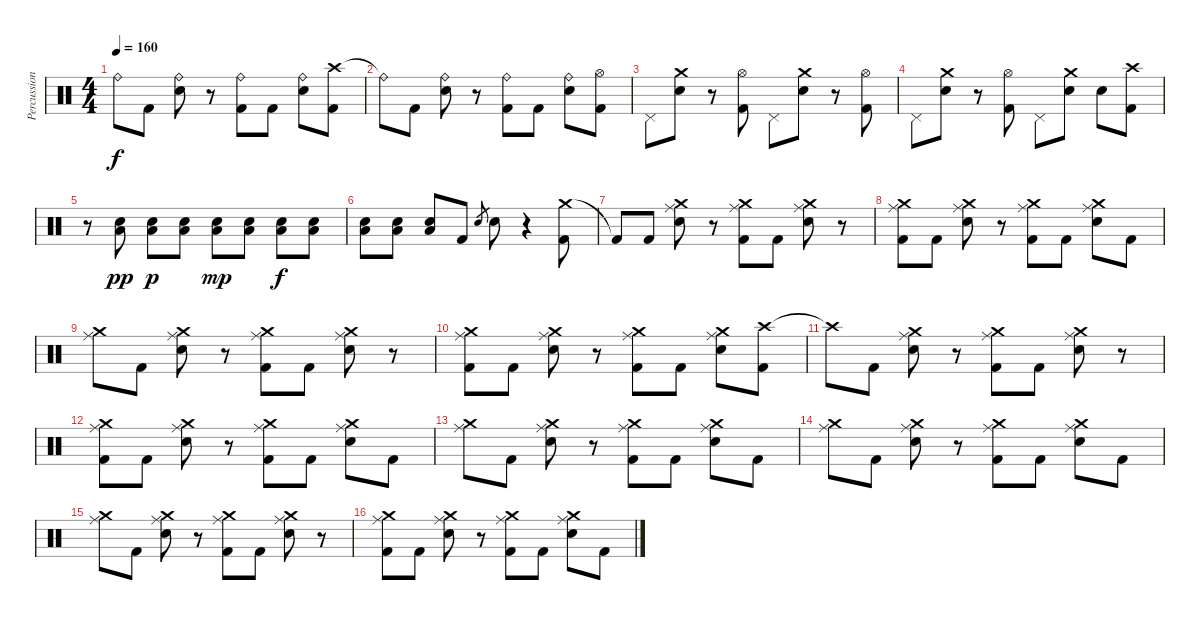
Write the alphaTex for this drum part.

\track ("Percussion" "Percussion") {instrument percussion}
\staff {score}
\articulation defaults
\ts (4 4)
\tempo 160
\clef neutral
\ks c "Ride (bell)"{t}.8{dy f} "Kick (hit) 2".8
("Ride (bell)" "Electric Snare (hit)").8 r.8 ("Ride (bell)" "Kick (hit) 2").8 "Kick (hit) 2".8 ("Ride (bell)" "Electric Snare (hit)").8 ("Crash high (hit)" "Kick (hit) 2").8 |
"Ride (bell)"{t}.8 "Kick (hit) 2".8 ("Ride (bell)" "Electric Snare (hit)").8 r.8 ("Ride (bell)" "Kick (hit) 2").8 "Kick (hit) 2".8 ("Ride (bell)" "Electric Snare (hit)").8 ("Hi-Hat (open)" "Kick (hit) 2").8 |
"Pedal Hi-Hat (hit)".8 ("Crash medium (hit)" "Electric Snare (hit)").8 r.8 ("Hi-Hat (open)" "Kick (hit) 2").8 "Pedal Hi-Hat (hit)".8 ("Crash medium (hit)" "Electric Snare (hit)").8 r.8 ("Hi-Hat (open)" "Kick (hit) 2").8 |
"Pedal Hi-Hat (hit)".8 ("Crash medium (hit)" "Electric Snare (hit)").8 r.8 ("Hi-Hat (open)" "Kick (hit) 2").8 "Pedal Hi-Hat (hit)".8 ("Crash medium (hit)" "Electric Snare (hit)").8 "Electric Snare (hit)".8 ("Crash high (hit)" "Kick (hit) 2").8 |
r.8 ("Low Tom (hit)" "Electric Snare (hit)").8{dy pp} ("Low Tom (hit)" "Electric Snare (hit)").8{dy p} ("Low Tom (hit)" "Electric Snare (hit)").8 ("Low Tom (hit)" "Electric Snare (hit)").8{dy mp} ("Low Tom (hit)" "Electric Snare (hit)").8 ("Low Tom (hit)" "Electric Snare (hit)").8{dy f} ("Low Tom (hit)" "Electric Snare (hit)").8 |
("Low Tom (hit)" "Electric Snare (hit)").8 ("Low Tom (hit)" "Electric Snare (hit)").8 ("Low Tom (hit)" "Electric Snare (hit)").8 "Kick (hit) 2".8 "Electric Snare (hit)".8{gr} "Electric Snare (hit)".8 r.4 ("Crash medium (hit)" "Kick (hit) 2").8 |
"Kick (hit) 2"{t}.8 "Kick (hit) 2".8 ("Ride (middle)" "Crash medium (hit)" "Electric Snare (hit)").8 r.8 ("Ride (middle)" "Crash medium (hit)" "Kick (hit) 2").8 "Kick (hit) 2".8 ("Ride (middle)" "Crash medium (hit)" "Electric Snare (hit)").8 r.8 |
("Ride (middle)" "Crash medium (hit)" "Kick (hit) 2").8 "Kick (hit) 2".8 ("Ride (middle)" "Crash medium (hit)" "Electric Snare (hit)").8 r.8 ("Ride (middle)" "Crash medium (hit)" "Kick (hit) 2").8 "Kick (hit) 2".8 ("Ride (middle)" "Crash medium (hit)" "Electric Snare (hit)").8 "Kick (hit) 2".8 |
("Ride (middle)" "Crash medium (hit)").8 "Kick (hit) 2".8 ("Ride (middle)" "Crash medium (hit)" "Electric Snare (hit)").8 r.8 ("Ride (middle)" "Crash medium (hit)" "Kick (hit) 2").8 "Kick (hit) 2".8 ("Ride (middle)" "Crash medium (hit)" "Electric Snare (hit)").8 r.8 |
("Ride (middle)" "Crash medium (hit)" "Kick (hit) 2").8 "Kick (hit) 2".8 ("Ride (middle)" "Crash medium (hit)" "Electric Snare (hit)").8 r.8 ("Ride (middle)" "Crash medium (hit)" "Kick (hit) 2").8 "Kick (hit) 2".8 ("Ride (middle)" "Crash medium (hit)" "Electric Snare (hit)").8 ("Crash high (hit)" "Kick (hit) 2").8 |
"Crash high (hit)"{t}.8 "Kick (hit) 2".8 ("Ride (middle)" "Crash medium (hit)" "Electric Snare (hit)").8 r.8 ("Ride (middle)" "Crash medium (hit)" "Kick (hit) 2").8 "Kick (hit) 2".8 ("Ride (middle)" "Crash medium (hit)" "Electric Snare (hit)").8 r.8 |
("Ride (middle)" "Crash medium (hit)" "Kick (hit) 2").8 "Kick (hit) 2".8 ("Ride (middle)" "Crash medium (hit)" "Electric Snare (hit)").8 r.8 ("Ride (middle)" "Crash medium (hit)" "Kick (hit) 2").8 "Kick (hit) 2".8 ("Ride (middle)" "Crash medium (hit)" "Electric Snare (hit)").8 "Kick (hit) 2".8 |
("Ride (middle)" "Crash medium (hit)").8 "Kick (hit) 2".8 ("Ride (middle)" "Crash medium (hit)" "Electric Snare (hit)").8 r.8 ("Ride (middle)" "Crash medium (hit)" "Kick (hit) 2").8 "Kick (hit) 2".8 ("Ride (middle)" "Crash medium (hit)" "Electric Snare (hit)").8 "Kick (hit) 2".8 |
("Ride (middle)" "Crash medium (hit)").8 "Kick (hit) 2".8 ("Ride (middle)" "Crash medium (hit)" "Electric Snare (hit)").8 r.8 ("Ride (middle)" "Crash medium (hit)" "Kick (hit) 2").8 "Kick (hit) 2".8 ("Ride (middle)" "Crash medium (hit)" "Electric Snare (hit)").8 "Kick (hit) 2".8 |
("Ride (middle)" "Crash medium (hit)").8 "Kick (hit) 2".8 ("Ride (middle)" "Crash medium (hit)" "Electric Snare (hit)").8 r.8 ("Ride (middle)" "Crash medium (hit)" "Kick (hit) 2").8 "Kick (hit) 2".8 ("Ride (middle)" "Crash medium (hit)" "Electric Snare (hit)").8 r.8 |
("Ride (middle)" "Crash medium (hit)" "Kick (hit) 2").8 "Kick (hit) 2".8 ("Ride (middle)" "Crash medium (hit)" "Electric Snare (hit)").8 r.8 ("Ride (middle)" "Crash medium (hit)" "Kick (hit) 2").8 "Kick (hit) 2".8 ("Ride (middle)" "Crash medium (hit)" "Electric Snare (hit)").8 "Kick (hit) 2".8
